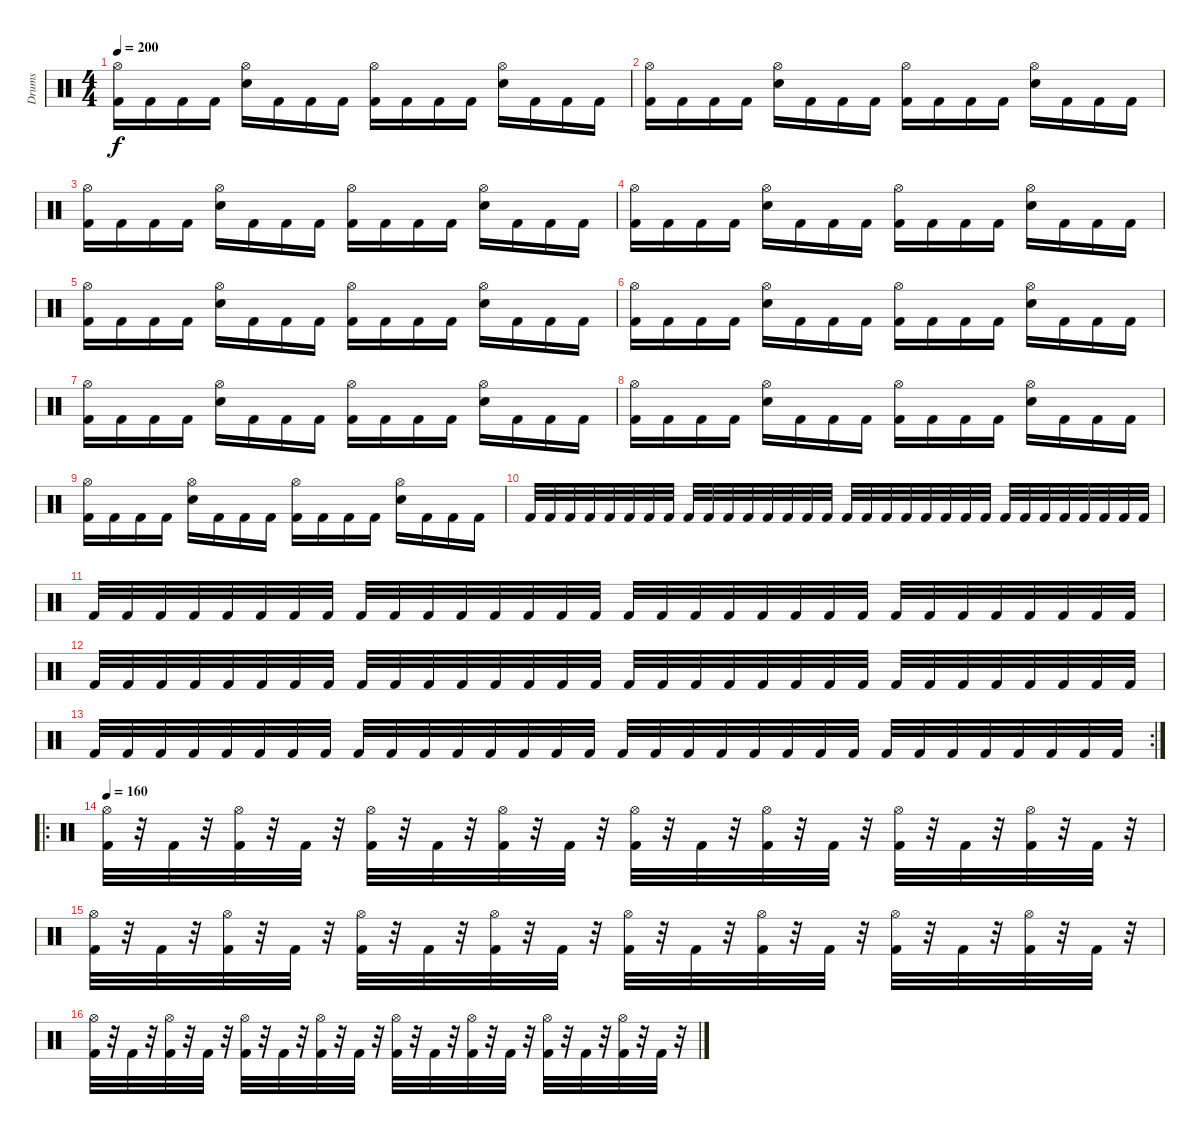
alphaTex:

\track ("Drums" "Drums") {instrument percussion}
\staff {score}
\articulation defaults
\ts (4 4)
\tempo 200
\clef neutral
\ks c
("Hi-Hat (open)" "Kick (hit) 2").16{dy f} "Kick (hit) 2".16 "Kick (hit) 2".16 "Kick (hit) 2".16 ("Hi-Hat (open)" "Snare (hit) 2").16 "Kick (hit) 2".16 "Kick (hit) 2".16 "Kick (hit) 2".16 ("Hi-Hat (open)" "Kick (hit) 2").16 "Kick (hit) 2".16 "Kick (hit) 2".16 "Kick (hit) 2".16 ("Hi-Hat (open)" "Snare (hit) 2").16 "Kick (hit) 2".16 "Kick (hit) 2".16 "Kick (hit) 2".16 |
("Hi-Hat (open)" "Kick (hit) 2").16 "Kick (hit) 2".16 "Kick (hit) 2".16 "Kick (hit) 2".16 ("Hi-Hat (open)" "Snare (hit) 2").16 "Kick (hit) 2".16 "Kick (hit) 2".16 "Kick (hit) 2".16 ("Hi-Hat (open)" "Kick (hit) 2").16 "Kick (hit) 2".16 "Kick (hit) 2".16 "Kick (hit) 2".16 ("Hi-Hat (open)" "Snare (hit) 2").16 "Kick (hit) 2".16 "Kick (hit) 2".16 "Kick (hit) 2".16 |
("Hi-Hat (open)" "Kick (hit) 2").16 "Kick (hit) 2".16 "Kick (hit) 2".16 "Kick (hit) 2".16 ("Hi-Hat (open)" "Snare (hit) 2").16 "Kick (hit) 2".16 "Kick (hit) 2".16 "Kick (hit) 2".16 ("Hi-Hat (open)" "Kick (hit) 2").16 "Kick (hit) 2".16 "Kick (hit) 2".16 "Kick (hit) 2".16 ("Hi-Hat (open)" "Snare (hit) 2").16 "Kick (hit) 2".16 "Kick (hit) 2".16 "Kick (hit) 2".16 |
("Hi-Hat (open)" "Kick (hit) 2").16 "Kick (hit) 2".16 "Kick (hit) 2".16 "Kick (hit) 2".16 ("Hi-Hat (open)" "Snare (hit) 2").16 "Kick (hit) 2".16 "Kick (hit) 2".16 "Kick (hit) 2".16 ("Hi-Hat (open)" "Kick (hit) 2").16 "Kick (hit) 2".16 "Kick (hit) 2".16 "Kick (hit) 2".16 ("Hi-Hat (open)" "Snare (hit) 2").16 "Kick (hit) 2".16 "Kick (hit) 2".16 "Kick (hit) 2".16 |
("Hi-Hat (open)" "Kick (hit) 2").16 "Kick (hit) 2".16 "Kick (hit) 2".16 "Kick (hit) 2".16 ("Hi-Hat (open)" "Snare (hit) 2").16 "Kick (hit) 2".16 "Kick (hit) 2".16 "Kick (hit) 2".16 ("Hi-Hat (open)" "Kick (hit) 2").16 "Kick (hit) 2".16 "Kick (hit) 2".16 "Kick (hit) 2".16 ("Hi-Hat (open)" "Snare (hit) 2").16 "Kick (hit) 2".16 "Kick (hit) 2".16 "Kick (hit) 2".16 |
("Hi-Hat (open)" "Kick (hit) 2").16 "Kick (hit) 2".16 "Kick (hit) 2".16 "Kick (hit) 2".16 ("Hi-Hat (open)" "Snare (hit) 2").16 "Kick (hit) 2".16 "Kick (hit) 2".16 "Kick (hit) 2".16 ("Hi-Hat (open)" "Kick (hit) 2").16 "Kick (hit) 2".16 "Kick (hit) 2".16 "Kick (hit) 2".16 ("Hi-Hat (open)" "Snare (hit) 2").16 "Kick (hit) 2".16 "Kick (hit) 2".16 "Kick (hit) 2".16 |
("Hi-Hat (open)" "Kick (hit) 2").16 "Kick (hit) 2".16 "Kick (hit) 2".16 "Kick (hit) 2".16 ("Hi-Hat (open)" "Snare (hit) 2").16 "Kick (hit) 2".16 "Kick (hit) 2".16 "Kick (hit) 2".16 ("Hi-Hat (open)" "Kick (hit) 2").16 "Kick (hit) 2".16 "Kick (hit) 2".16 "Kick (hit) 2".16 ("Hi-Hat (open)" "Snare (hit) 2").16 "Kick (hit) 2".16 "Kick (hit) 2".16 "Kick (hit) 2".16 |
("Hi-Hat (open)" "Kick (hit) 2").16 "Kick (hit) 2".16 "Kick (hit) 2".16 "Kick (hit) 2".16 ("Hi-Hat (open)" "Snare (hit) 2").16 "Kick (hit) 2".16 "Kick (hit) 2".16 "Kick (hit) 2".16 ("Hi-Hat (open)" "Kick (hit) 2").16 "Kick (hit) 2".16 "Kick (hit) 2".16 "Kick (hit) 2".16 ("Hi-Hat (open)" "Snare (hit) 2").16 "Kick (hit) 2".16 "Kick (hit) 2".16 "Kick (hit) 2".16 |
("Hi-Hat (open)" "Kick (hit) 2").16 "Kick (hit) 2".16 "Kick (hit) 2".16 "Kick (hit) 2".16 ("Hi-Hat (open)" "Snare (hit) 2").16 "Kick (hit) 2".16 "Kick (hit) 2".16 "Kick (hit) 2".16 ("Hi-Hat (open)" "Kick (hit) 2").16 "Kick (hit) 2".16 "Kick (hit) 2".16 "Kick (hit) 2".16 ("Hi-Hat (open)" "Snare (hit) 2").16 "Kick (hit) 2".16 "Kick (hit) 2".16 "Kick (hit) 2".16 |
"Kick (hit) 2".32 "Kick (hit) 2".32 "Kick (hit) 2".32 "Kick (hit) 2".32 "Kick (hit) 2".32 "Kick (hit) 2".32 "Kick (hit) 2".32 "Kick (hit) 2".32 "Kick (hit) 2".32 "Kick (hit) 2".32 "Kick (hit) 2".32 "Kick (hit) 2".32 "Kick (hit) 2".32 "Kick (hit) 2".32 "Kick (hit) 2".32 "Kick (hit) 2".32 "Kick (hit) 2".32 "Kick (hit) 2".32 "Kick (hit) 2".32 "Kick (hit) 2".32 "Kick (hit) 2".32 "Kick (hit) 2".32 "Kick (hit) 2".32 "Kick (hit) 2".32 "Kick (hit) 2".32 "Kick (hit) 2".32 "Kick (hit) 2".32 "Kick (hit) 2".32 "Kick (hit) 2".32 "Kick (hit) 2".32 "Kick (hit) 2".32 "Kick (hit) 2".32 |
"Kick (hit) 2".32 "Kick (hit) 2".32 "Kick (hit) 2".32 "Kick (hit) 2".32 "Kick (hit) 2".32 "Kick (hit) 2".32 "Kick (hit) 2".32 "Kick (hit) 2".32 "Kick (hit) 2".32 "Kick (hit) 2".32 "Kick (hit) 2".32 "Kick (hit) 2".32 "Kick (hit) 2".32 "Kick (hit) 2".32 "Kick (hit) 2".32 "Kick (hit) 2".32 "Kick (hit) 2".32 "Kick (hit) 2".32 "Kick (hit) 2".32 "Kick (hit) 2".32 "Kick (hit) 2".32 "Kick (hit) 2".32 "Kick (hit) 2".32 "Kick (hit) 2".32 "Kick (hit) 2".32 "Kick (hit) 2".32 "Kick (hit) 2".32 "Kick (hit) 2".32 "Kick (hit) 2".32 "Kick (hit) 2".32 "Kick (hit) 2".32 "Kick (hit) 2".32 |
"Kick (hit) 2".32 "Kick (hit) 2".32 "Kick (hit) 2".32 "Kick (hit) 2".32 "Kick (hit) 2".32 "Kick (hit) 2".32 "Kick (hit) 2".32 "Kick (hit) 2".32 "Kick (hit) 2".32 "Kick (hit) 2".32 "Kick (hit) 2".32 "Kick (hit) 2".32 "Kick (hit) 2".32 "Kick (hit) 2".32 "Kick (hit) 2".32 "Kick (hit) 2".32 "Kick (hit) 2".32 "Kick (hit) 2".32 "Kick (hit) 2".32 "Kick (hit) 2".32 "Kick (hit) 2".32 "Kick (hit) 2".32 "Kick (hit) 2".32 "Kick (hit) 2".32 "Kick (hit) 2".32 "Kick (hit) 2".32 "Kick (hit) 2".32 "Kick (hit) 2".32 "Kick (hit) 2".32 "Kick (hit) 2".32 "Kick (hit) 2".32 "Kick (hit) 2".32 |
\rc 2 "Kick (hit) 2".32 "Kick (hit) 2".32 "Kick (hit) 2".32 "Kick (hit) 2".32 "Kick (hit) 2".32 "Kick (hit) 2".32 "Kick (hit) 2".32 "Kick (hit) 2".32 "Kick (hit) 2".32 "Kick (hit) 2".32 "Kick (hit) 2".32 "Kick (hit) 2".32 "Kick (hit) 2".32 "Kick (hit) 2".32 "Kick (hit) 2".32 "Kick (hit) 2".32 "Kick (hit) 2".32 "Kick (hit) 2".32 "Kick (hit) 2".32 "Kick (hit) 2".32 "Kick (hit) 2".32 "Kick (hit) 2".32 "Kick (hit) 2".32 "Kick (hit) 2".32 "Kick (hit) 2".32 "Kick (hit) 2".32 "Kick (hit) 2".32 "Kick (hit) 2".32 "Kick (hit) 2".32 "Kick (hit) 2".32 "Kick (hit) 2".32 "Kick (hit) 2".32
|
\ro
\tempo 160
("Hi-Hat (open)" "Kick (hit) 2").32 r.32 "Kick (hit) 2".32 r.32 ("Hi-Hat (open)" "Kick (hit) 2").32 r.32 "Kick (hit) 2".32 r.32 ("Hi-Hat (open)" "Kick (hit) 2").32 r.32 "Kick (hit) 2".32 r.32 ("Hi-Hat (open)" "Kick (hit) 2").32 r.32 "Kick (hit) 2".32 r.32 ("Hi-Hat (open)" "Kick (hit) 2").32 r.32 "Kick (hit) 2".32 r.32 ("Hi-Hat (open)" "Kick (hit) 2").32 r.32 "Kick (hit) 2".32 r.32 ("Hi-Hat (open)" "Kick (hit) 2").32 r.32 "Kick (hit) 2".32 r.32 ("Hi-Hat (open)" "Kick (hit) 2").32 r.32 "Kick (hit) 2".32 r.32 |
("Hi-Hat (open)" "Kick (hit) 2").32 r.32 "Kick (hit) 2".32 r.32 ("Hi-Hat (open)" "Kick (hit) 2").32 r.32 "Kick (hit) 2".32 r.32 ("Hi-Hat (open)" "Kick (hit) 2").32 r.32 "Kick (hit) 2".32 r.32 ("Hi-Hat (open)" "Kick (hit) 2").32 r.32 "Kick (hit) 2".32 r.32 ("Hi-Hat (open)" "Kick (hit) 2").32 r.32 "Kick (hit) 2".32 r.32 ("Hi-Hat (open)" "Kick (hit) 2").32 r.32 "Kick (hit) 2".32 r.32 ("Hi-Hat (open)" "Kick (hit) 2").32 r.32 "Kick (hit) 2".32 r.32 ("Hi-Hat (open)" "Kick (hit) 2").32 r.32 "Kick (hit) 2".32 r.32 |
("Hi-Hat (open)" "Kick (hit) 2").32 r.32 "Kick (hit) 2".32 r.32 ("Hi-Hat (open)" "Kick (hit) 2").32 r.32 "Kick (hit) 2".32 r.32 ("Hi-Hat (open)" "Kick (hit) 2").32 r.32 "Kick (hit) 2".32 r.32 ("Hi-Hat (open)" "Kick (hit) 2").32 r.32 "Kick (hit) 2".32 r.32 ("Hi-Hat (open)" "Kick (hit) 2").32 r.32 "Kick (hit) 2".32 r.32 ("Hi-Hat (open)" "Kick (hit) 2").32 r.32 "Kick (hit) 2".32 r.32 ("Hi-Hat (open)" "Kick (hit) 2").32 r.32 "Kick (hit) 2".32 r.32 ("Hi-Hat (open)" "Kick (hit) 2").32 r.32 "Kick (hit) 2".32 r.32
